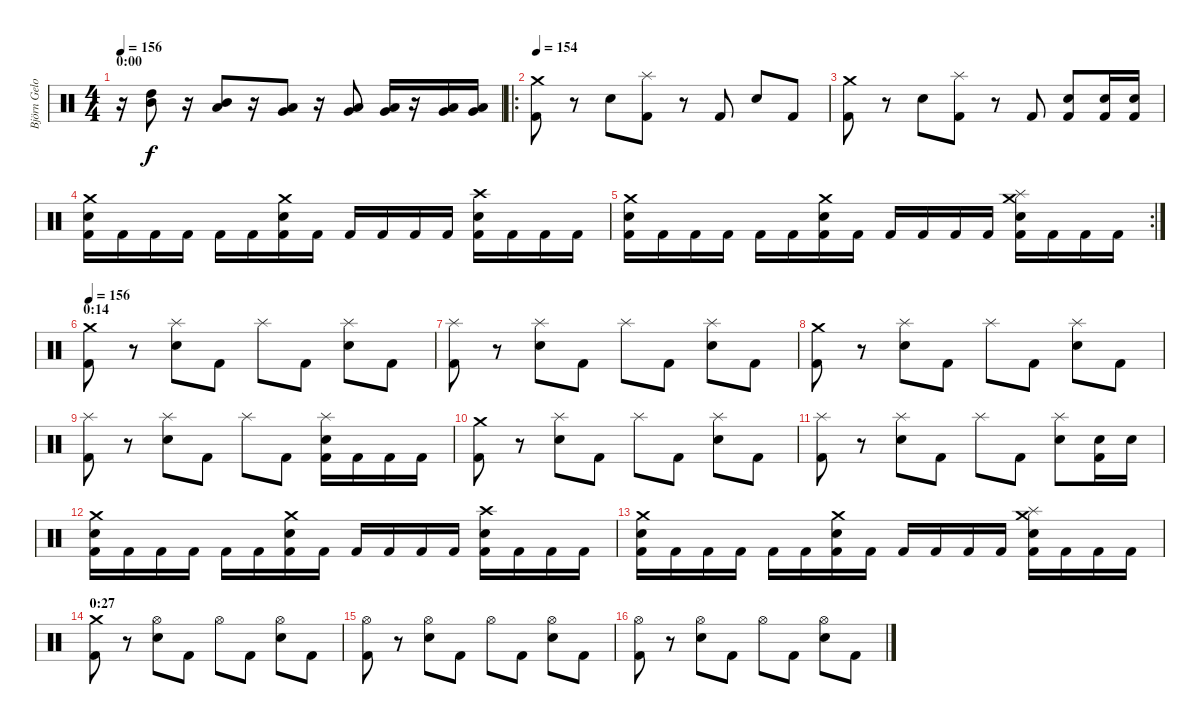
\track ("Björn Gelotte" "Björn Gelo") {instrument percussion}
\staff {score}
\articulation defaults
\ts (4 4)
\section ("" "0:00")
\tempo 156
\clef neutral
\ks c
r.16{dy f} ("Mid Tom (hit)" "High Tom (hit)").8 r.16 ("Low Tom (hit)" "Mid Tom (hit)").8 r.16 ("Very Low Tom (hit)" "Low Tom (hit)").8 r.16 ("Very Low Tom (hit)" "Low Floor Tom (hit)").8 ("Very Low Tom (hit)" "Low Floor Tom (hit)").16 r.16 ("Very Low Tom (hit)" "Low Floor Tom (hit)").16 ("Very Low Tom (hit)" "Low Floor Tom (hit)").16 |
\ro
\tempo 154
("Crash medium (hit)" "Kick (hit) 2").8 r.8 "Electric Snare (hit)".8 ("Splash (hit)" "Kick (hit) 2").8 r.8 "Kick (hit) 2".8 "Electric Snare (hit)".8 "Kick (hit) 2".8 |
("Crash medium (hit)" "Kick (hit) 2").8 r.8 "Electric Snare (hit)".8 ("Splash (hit)" "Kick (hit) 2").8 r.8 "Kick (hit) 2".8 ("Electric Snare (hit)" "Kick (hit) 2").8 ("Electric Snare (hit)" "Kick (hit) 2").16 ("Electric Snare (hit)" "Kick (hit) 2").16 |
("Crash medium (hit)" "Electric Snare (hit)" "Kick (hit) 2").16 "Kick (hit) 2".16 "Kick (hit) 2".16 "Kick (hit) 2".16 "Kick (hit) 2".16 "Kick (hit) 2".16 ("Crash medium (hit)" "Electric Snare (hit)" "Kick (hit) 2").16 "Kick (hit) 2".16 "Kick (hit) 2".16 "Kick (hit) 2".16 "Kick (hit) 2".16 "Kick (hit) 2".16 ("Crash high (hit)" "Electric Snare (hit)" "Kick (hit) 2").16 "Kick (hit) 2".16 "Kick (hit) 2".16 "Kick (hit) 2".16 |
\rc 2
("Crash medium (hit)" "Electric Snare (hit)" "Kick (hit) 2").16 "Kick (hit) 2".16 "Kick (hit) 2".16 "Kick (hit) 2".16 "Kick (hit) 2".16 "Kick (hit) 2".16 ("Crash medium (hit)" "Electric Snare (hit)" "Kick (hit) 2").16 "Kick (hit) 2".16 "Kick (hit) 2".16 "Kick (hit) 2".16 "Kick (hit) 2".16 "Kick (hit) 2".16 ("Crash medium (hit)" "Splash (hit)" "Electric Snare (hit)" "Kick (hit) 2").16 "Kick (hit) 2".16 "Kick (hit) 2".16 "Kick (hit) 2".16 |
\section ("" "0:14")
\tempo 156
("Crash medium (hit)" "Kick (hit) 2").8 r.8 ("Splash (hit)" "Electric Snare (hit)").8 "Kick (hit) 2".8 "Splash (hit)".8 "Kick (hit) 2".8 ("Splash (hit)" "Electric Snare (hit)").8 "Kick (hit) 2".8 |
("Splash (hit)" "Kick (hit) 2").8 r.8 ("Splash (hit)" "Electric Snare (hit)").8 "Kick (hit) 2".8 "Splash (hit)".8 "Kick (hit) 2".8 ("Splash (hit)" "Electric Snare (hit)").8 "Kick (hit) 2".8 |
("Crash medium (hit)" "Kick (hit) 2").8 r.8 ("Splash (hit)" "Electric Snare (hit)").8 "Kick (hit) 2".8 "Splash (hit)".8 "Kick (hit) 2".8 ("Splash (hit)" "Electric Snare (hit)").8 "Kick (hit) 2".8 |
("Splash (hit)" "Kick (hit) 2").8 r.8 ("Splash (hit)" "Electric Snare (hit)").8 "Kick (hit) 2".8 "Splash (hit)".8 "Kick (hit) 2".8 ("Splash (hit)" "Electric Snare (hit)" "Kick (hit) 2").16 "Kick (hit) 2".16 "Kick (hit) 2".16 "Kick (hit) 2".16 |
("Crash medium (hit)" "Kick (hit) 2").8 r.8 ("Splash (hit)" "Electric Snare (hit)").8 "Kick (hit) 2".8 "Splash (hit)".8 "Kick (hit) 2".8 ("Splash (hit)" "Electric Snare (hit)").8 "Kick (hit) 2".8 |
("Splash (hit)" "Kick (hit) 2").8 r.8 ("Splash (hit)" "Electric Snare (hit)").8 "Kick (hit) 2".8 "Splash (hit)".8 "Kick (hit) 2".8 ("Splash (hit)" "Electric Snare (hit)").8 ("Electric Snare (hit)" "Kick (hit) 2").16 "Electric Snare (hit)".16 |
("Crash medium (hit)" "Electric Snare (hit)" "Kick (hit) 2").16 "Kick (hit) 2".16 "Kick (hit) 2".16 "Kick (hit) 2".16 "Kick (hit) 2".16 "Kick (hit) 2".16 ("Crash medium (hit)" "Electric Snare (hit)" "Kick (hit) 2").16 "Kick (hit) 2".16 "Kick (hit) 2".16 "Kick (hit) 2".16 "Kick (hit) 2".16 "Kick (hit) 2".16 ("Crash high (hit)" "Electric Snare (hit)" "Kick (hit) 2").16 "Kick (hit) 2".16 "Kick (hit) 2".16 "Kick (hit) 2".16 |
("Crash medium (hit)" "Electric Snare (hit)" "Kick (hit) 2").16 "Kick (hit) 2".16 "Kick (hit) 2".16 "Kick (hit) 2".16 "Kick (hit) 2".16 "Kick (hit) 2".16 ("Crash medium (hit)" "Electric Snare (hit)" "Kick (hit) 2").16 "Kick (hit) 2".16 "Kick (hit) 2".16 "Kick (hit) 2".16 "Kick (hit) 2".16 "Kick (hit) 2".16 ("Crash medium (hit)" "Splash (hit)" "Electric Snare (hit)" "Kick (hit) 2").16 "Kick (hit) 2".16 "Kick (hit) 2".16 "Kick (hit) 2".16 |
\section ("" "0:27")
("Crash medium (hit)" "Kick (hit) 2").8 r.8 ("Hi-Hat (open)" "Electric Snare (hit)").8 "Kick (hit) 2".8 "Hi-Hat (open)".8 "Kick (hit) 2".8 ("Hi-Hat (open)" "Electric Snare (hit)").8 "Kick (hit) 2".8 |
("Hi-Hat (open)" "Kick (hit) 2").8 r.8 ("Hi-Hat (open)" "Electric Snare (hit)").8 "Kick (hit) 2".8 "Hi-Hat (open)".8 "Kick (hit) 2".8 ("Hi-Hat (open)" "Electric Snare (hit)").8 "Kick (hit) 2".8 |
("Hi-Hat (open)" "Kick (hit) 2").8 r.8 ("Hi-Hat (open)" "Electric Snare (hit)").8 "Kick (hit) 2".8 "Hi-Hat (open)".8 "Kick (hit) 2".8 ("Hi-Hat (open)" "Electric Snare (hit)").8 "Kick (hit) 2".8
